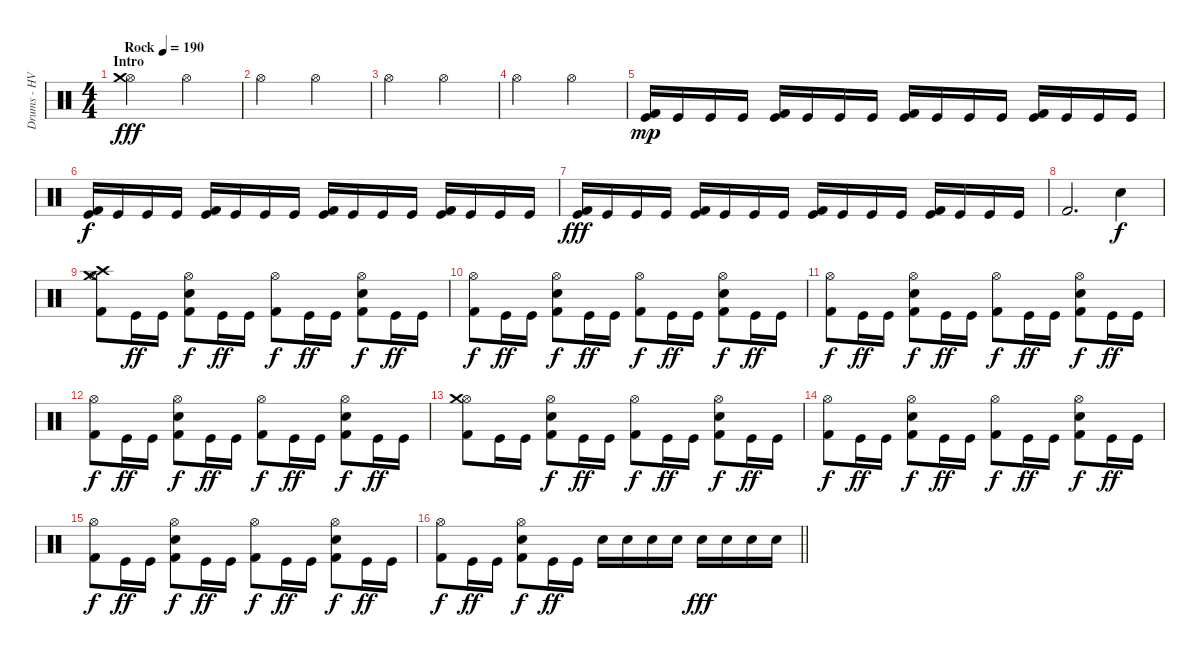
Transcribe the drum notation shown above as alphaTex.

\track ("Drums - HV NikiTon" "Drums - HV") {instrument percussion}
\staff {score}
\articulation defaults
\ts (4 4)
\section ("" "Intro")
\tempo (190 "Rock")
\clef neutral
\ks c
("Hi-Hat (open)" "Crash medium (hit)").2{dy fff} "Hi-Hat (open)".2 |
"Hi-Hat (open)".2 "Hi-Hat (open)".2 |
"Hi-Hat (open)".2 "Hi-Hat (open)".2 |
"Hi-Hat (open)".2 "Hi-Hat (open)".2 |
("Kick (hit)" "Kick (hit) 2").16{dy mp} "Kick (hit)".16 "Kick (hit)".16 "Kick (hit)".16 ("Kick (hit)" "Kick (hit) 2").16 "Kick (hit)".16 "Kick (hit)".16 "Kick (hit)".16 ("Kick (hit)" "Kick (hit) 2").16 "Kick (hit)".16 "Kick (hit)".16 "Kick (hit)".16 ("Kick (hit)" "Kick (hit) 2").16 "Kick (hit)".16 "Kick (hit)".16 "Kick (hit)".16 |
("Kick (hit)" "Kick (hit) 2").16{dy f} "Kick (hit)".16 "Kick (hit)".16 "Kick (hit)".16 ("Kick (hit)" "Kick (hit) 2").16 "Kick (hit)".16 "Kick (hit)".16 "Kick (hit)".16 ("Kick (hit)" "Kick (hit) 2").16 "Kick (hit)".16 "Kick (hit)".16 "Kick (hit)".16 ("Kick (hit)" "Kick (hit) 2").16 "Kick (hit)".16 "Kick (hit)".16 "Kick (hit)".16 |
("Kick (hit)" "Kick (hit) 2").16{dy fff} "Kick (hit)".16 "Kick (hit)".16 "Kick (hit)".16 ("Kick (hit)" "Kick (hit) 2").16 "Kick (hit)".16 "Kick (hit)".16 "Kick (hit)".16 ("Kick (hit)" "Kick (hit) 2").16 "Kick (hit)".16 "Kick (hit)".16 "Kick (hit)".16 ("Kick (hit)" "Kick (hit) 2").16 "Kick (hit)".16 "Kick (hit)".16 "Kick (hit)".16 |
"Kick (hit) 2".2{d} "Electric Snare (hit)".4{dy f} |
("Crash medium (hit)" "Kick (hit) 2" "Hi-Hat (open)" "Crash high (hit)").8 "Kick (hit)".16{dy ff} "Kick (hit)".16 ("Electric Snare (hit)" "Kick (hit) 2" "Hi-Hat (open)").8{dy f} "Kick (hit)".16{dy ff} "Kick (hit)".16 ("Kick (hit) 2" "Hi-Hat (open)").8{dy f} "Kick (hit)".16{dy ff} "Kick (hit)".16 ("Electric Snare (hit)" "Kick (hit) 2" "Hi-Hat (open)").8{dy f} "Kick (hit)".16{dy ff} "Kick (hit)".16 |
("Kick (hit) 2" "Hi-Hat (open)").8{dy f} "Kick (hit)".16{dy ff} "Kick (hit)".16 ("Electric Snare (hit)" "Kick (hit) 2" "Hi-Hat (open)").8{dy f} "Kick (hit)".16{dy ff} "Kick (hit)".16 ("Kick (hit) 2" "Hi-Hat (open)").8{dy f} "Kick (hit)".16{dy ff} "Kick (hit)".16 ("Electric Snare (hit)" "Kick (hit) 2" "Hi-Hat (open)").8{dy f} "Kick (hit)".16{dy ff} "Kick (hit)".16 |
("Kick (hit) 2" "Hi-Hat (open)").8{dy f} "Kick (hit)".16{dy ff} "Kick (hit)".16 ("Electric Snare (hit)" "Kick (hit) 2" "Hi-Hat (open)").8{dy f} "Kick (hit)".16{dy ff} "Kick (hit)".16 ("Kick (hit) 2" "Hi-Hat (open)").8{dy f} "Kick (hit)".16{dy ff} "Kick (hit)".16 ("Electric Snare (hit)" "Kick (hit) 2" "Hi-Hat (open)").8{dy f} "Kick (hit)".16{dy ff} "Kick (hit)".16 |
("Kick (hit) 2" "Hi-Hat (open)").8{dy f} "Kick (hit)".16{dy ff} "Kick (hit)".16 ("Electric Snare (hit)" "Kick (hit) 2" "Hi-Hat (open)").8{dy f} "Kick (hit)".16{dy ff} "Kick (hit)".16 ("Kick (hit) 2" "Hi-Hat (open)").8{dy f} "Kick (hit)".16{dy ff} "Kick (hit)".16 ("Electric Snare (hit)" "Kick (hit) 2" "Hi-Hat (open)").8{dy f} "Kick (hit)".16{dy ff} "Kick (hit)".16 |
("Kick (hit) 2" "Hi-Hat (open)" "Crash medium (hit)").8 "Kick (hit)".16 "Kick (hit)".16 ("Electric Snare (hit)" "Kick (hit) 2" "Hi-Hat (open)").8{dy f} "Kick (hit)".16{dy ff} "Kick (hit)".16 ("Kick (hit) 2" "Hi-Hat (open)").8{dy f} "Kick (hit)".16{dy ff} "Kick (hit)".16 ("Electric Snare (hit)" "Kick (hit) 2" "Hi-Hat (open)").8{dy f} "Kick (hit)".16{dy ff} "Kick (hit)".16 |
("Kick (hit) 2" "Hi-Hat (open)").8{dy f} "Kick (hit)".16{dy ff} "Kick (hit)".16 ("Electric Snare (hit)" "Kick (hit) 2" "Hi-Hat (open)").8{dy f} "Kick (hit)".16{dy ff} "Kick (hit)".16 ("Kick (hit) 2" "Hi-Hat (open)").8{dy f} "Kick (hit)".16{dy ff} "Kick (hit)".16 ("Electric Snare (hit)" "Kick (hit) 2" "Hi-Hat (open)").8{dy f} "Kick (hit)".16{dy ff} "Kick (hit)".16 |
("Kick (hit) 2" "Hi-Hat (open)").8{dy f} "Kick (hit)".16{dy ff} "Kick (hit)".16 ("Electric Snare (hit)" "Kick (hit) 2" "Hi-Hat (open)").8{dy f} "Kick (hit)".16{dy ff} "Kick (hit)".16 ("Kick (hit) 2" "Hi-Hat (open)").8{dy f} "Kick (hit)".16{dy ff} "Kick (hit)".16 ("Electric Snare (hit)" "Kick (hit) 2" "Hi-Hat (open)").8{dy f} "Kick (hit)".16{dy ff} "Kick (hit)".16 |
\barLineRight lightlight
("Kick (hit) 2" "Hi-Hat (open)").8{dy f} "Kick (hit)".16{dy ff} "Kick (hit)".16 ("Electric Snare (hit)" "Kick (hit) 2" "Hi-Hat (open)").8{dy f} "Kick (hit)".16{dy ff} "Kick (hit)".16 "Electric Snare (hit)".16 "Electric Snare (hit)".16 "Electric Snare (hit)".16 "Electric Snare (hit)".16 "Snare (hit) 2".16{dy fff} "Snare (hit) 2".16 "Snare (hit) 2".16 "Snare (hit) 2".16
